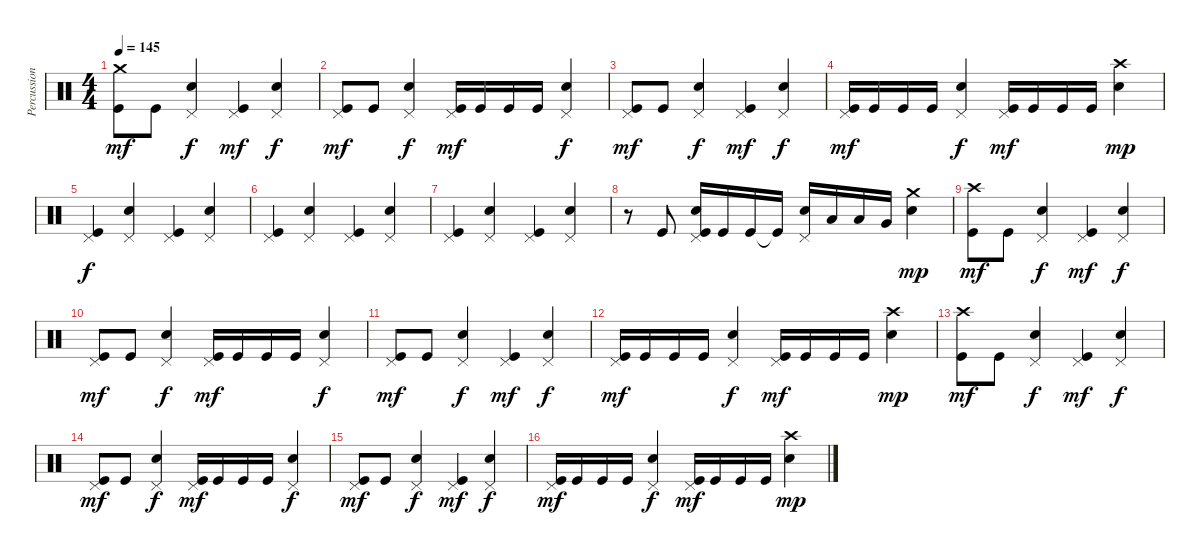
\track ("Percussion" "Percussion") {instrument percussion}
\staff {score}
\articulation defaults
\ts (4 4)
\tempo 145
\clef neutral
\ks c
("Crash medium (hit)" "Kick (hit)").8{dy mf} "Kick (hit)".8 ("Pedal Hi-Hat (hit)" "Electric Snare (hit)").4{dy f} ("Pedal Hi-Hat (hit)" "Kick (hit)").4{dy mf} ("Pedal Hi-Hat (hit)" "Electric Snare (hit)").4{dy f} |
("Pedal Hi-Hat (hit)" "Kick (hit)").8{dy mf} "Kick (hit)".8 ("Pedal Hi-Hat (hit)" "Electric Snare (hit)").4{dy f} ("Pedal Hi-Hat (hit)" "Kick (hit)").16{dy mf} "Kick (hit)".16 "Kick (hit)".16 "Kick (hit)".16 ("Pedal Hi-Hat (hit)" "Electric Snare (hit)").4{dy f} |
("Pedal Hi-Hat (hit)" "Kick (hit)").8{dy mf} "Kick (hit)".8 ("Pedal Hi-Hat (hit)" "Electric Snare (hit)").4{dy f} ("Pedal Hi-Hat (hit)" "Kick (hit)").4{dy mf} ("Pedal Hi-Hat (hit)" "Electric Snare (hit)").4{dy f} |
("Pedal Hi-Hat (hit)" "Kick (hit)").16{dy mf} "Kick (hit)".16 "Kick (hit)".16 "Kick (hit)".16 ("Pedal Hi-Hat (hit)" "Electric Snare (hit)").4{dy f} ("Pedal Hi-Hat (hit)" "Kick (hit)").16{dy mf} "Kick (hit)".16 "Kick (hit)".16 "Kick (hit)".16 ("Crash high (hit)" "Electric Snare (hit)").4{dy mp} |
("Pedal Hi-Hat (hit)" "Kick (hit)").4{dy f} ("Pedal Hi-Hat (hit)" "Electric Snare (hit)").4 ("Pedal Hi-Hat (hit)" "Kick (hit)").4 ("Pedal Hi-Hat (hit)" "Electric Snare (hit)").4 |
("Pedal Hi-Hat (hit)" "Kick (hit)").4 ("Pedal Hi-Hat (hit)" "Electric Snare (hit)").4 ("Pedal Hi-Hat (hit)" "Kick (hit)").4 ("Pedal Hi-Hat (hit)" "Electric Snare (hit)").4 |
("Pedal Hi-Hat (hit)" "Kick (hit)").4 ("Pedal Hi-Hat (hit)" "Electric Snare (hit)").4 ("Pedal Hi-Hat (hit)" "Kick (hit)").4 ("Pedal Hi-Hat (hit)" "Electric Snare (hit)").4 |
r.8 "Kick (hit)".8 ("Pedal Hi-Hat (hit)" "Kick (hit)" "Electric Snare (hit)").16 "Kick (hit)".16 "Kick (hit)".16 "Kick (hit)"{t}.16 ("Pedal Hi-Hat (hit)" "Electric Snare (hit)").16 "Low Tom (hit)".16 "Low Tom (hit)".16 "Very Low Tom (hit)".16 ("Crash medium (hit)" "Electric Snare (hit)").4{dy mp} |
("Crash high (hit)" "Kick (hit)").8{dy mf} "Kick (hit)".8 ("Pedal Hi-Hat (hit)" "Electric Snare (hit)").4{dy f} ("Pedal Hi-Hat (hit)" "Kick (hit)").4{dy mf} ("Pedal Hi-Hat (hit)" "Electric Snare (hit)").4{dy f} |
("Pedal Hi-Hat (hit)" "Kick (hit)").8{dy mf} "Kick (hit)".8 ("Pedal Hi-Hat (hit)" "Electric Snare (hit)").4{dy f} ("Pedal Hi-Hat (hit)" "Kick (hit)").16{dy mf} "Kick (hit)".16 "Kick (hit)".16 "Kick (hit)".16 ("Pedal Hi-Hat (hit)" "Electric Snare (hit)").4{dy f} |
("Pedal Hi-Hat (hit)" "Kick (hit)").8{dy mf} "Kick (hit)".8 ("Pedal Hi-Hat (hit)" "Electric Snare (hit)").4{dy f} ("Pedal Hi-Hat (hit)" "Kick (hit)").4{dy mf} ("Pedal Hi-Hat (hit)" "Electric Snare (hit)").4{dy f} |
("Pedal Hi-Hat (hit)" "Kick (hit)").16{dy mf} "Kick (hit)".16 "Kick (hit)".16 "Kick (hit)".16 ("Pedal Hi-Hat (hit)" "Electric Snare (hit)").4{dy f} ("Pedal Hi-Hat (hit)" "Kick (hit)").16{dy mf} "Kick (hit)".16 "Kick (hit)".16 "Kick (hit)".16 ("Crash high (hit)" "Electric Snare (hit)").4{dy mp} |
("Crash high (hit)" "Kick (hit)").8{dy mf} "Kick (hit)".8 ("Pedal Hi-Hat (hit)" "Electric Snare (hit)").4{dy f} ("Pedal Hi-Hat (hit)" "Kick (hit)").4{dy mf} ("Pedal Hi-Hat (hit)" "Electric Snare (hit)").4{dy f} |
("Pedal Hi-Hat (hit)" "Kick (hit)").8{dy mf} "Kick (hit)".8 ("Pedal Hi-Hat (hit)" "Electric Snare (hit)").4{dy f} ("Pedal Hi-Hat (hit)" "Kick (hit)").16{dy mf} "Kick (hit)".16 "Kick (hit)".16 "Kick (hit)".16 ("Pedal Hi-Hat (hit)" "Electric Snare (hit)").4{dy f} |
("Pedal Hi-Hat (hit)" "Kick (hit)").8{dy mf} "Kick (hit)".8 ("Pedal Hi-Hat (hit)" "Electric Snare (hit)").4{dy f} ("Pedal Hi-Hat (hit)" "Kick (hit)").4{dy mf} ("Pedal Hi-Hat (hit)" "Electric Snare (hit)").4{dy f} |
("Pedal Hi-Hat (hit)" "Kick (hit)").16{dy mf} "Kick (hit)".16 "Kick (hit)".16 "Kick (hit)".16 ("Pedal Hi-Hat (hit)" "Electric Snare (hit)").4{dy f} ("Pedal Hi-Hat (hit)" "Kick (hit)").16{dy mf} "Kick (hit)".16 "Kick (hit)".16 "Kick (hit)".16 ("Crash high (hit)" "Electric Snare (hit)").4{dy mp}
